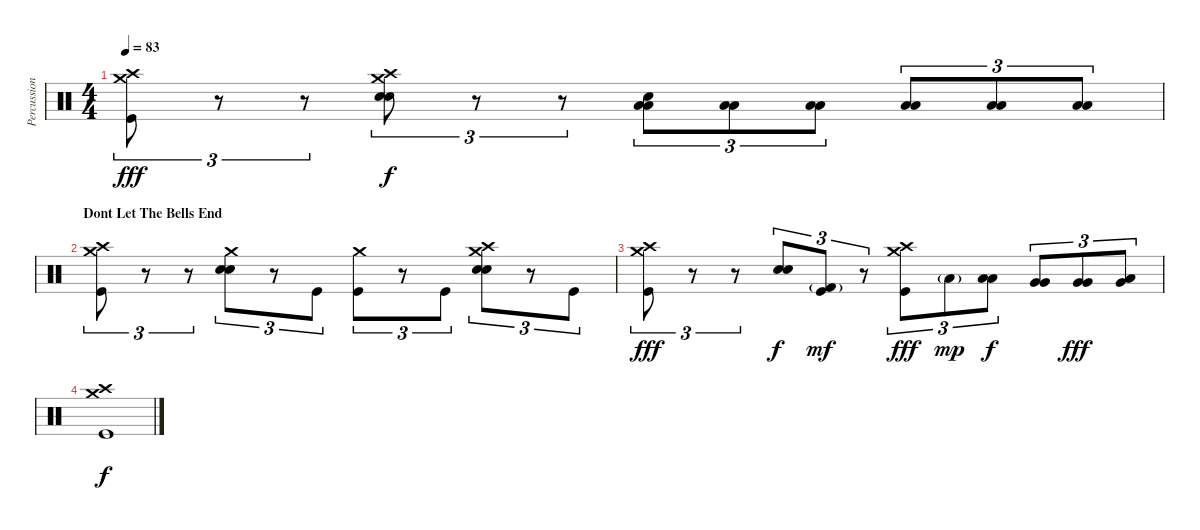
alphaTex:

\track ("Percussion" "Percussion") {instrument percussion}
\staff {score}
\articulation defaults
\ts (4 4)
\tempo 83
\clef neutral
\ks c
("Crash high (hit)" "Crash medium (hit)" "Kick (hit)").8{tu (3 2) dy fff} r.8{tu (3 2)} r.8{tu (3 2)} ("Crash high (hit)" "Crash medium (hit)" "Snare (hit) 2" "Snare (hit) 2").8{tu (3 2) dy f} r.8{tu (3 2)} r.8{tu (3 2)} ("Snare (hit) 2" "Low Floor Tom (hit)" "Low Floor Tom (hit)").8{tu (3 2)} ("Low Floor Tom (hit)" "Low Floor Tom (hit)").8{tu (3 2)} ("Low Floor Tom (hit)" "Low Floor Tom (hit)").8{tu (3 2)} ("Low Floor Tom (hit)" "Low Floor Tom (hit)").8{tu (3 2)} ("Low Floor Tom (hit)" "Low Floor Tom (hit)").8{tu (3 2)} ("Low Floor Tom (hit)" "Low Floor Tom (hit)").8{tu (3 2)} |
\section ("" "Dont Let The Bells End")
("Crash high (hit)" "Crash medium (hit)" "Kick (hit)").8{tu (3 2)} r.8{tu (3 2)} r.8{tu (3 2)} ("Crash medium (hit)" "Snare (hit) 2" "Snare (hit) 2").8{tu (3 2)} r.8{tu (3 2)} "Kick (hit)".8{tu (3 2)} ("Crash medium (hit)" "Kick (hit)").8{tu (3 2)} r.8{tu (3 2)} "Kick (hit)".8{tu (3 2)} ("Crash high (hit)" "Crash medium (hit)" "Snare (hit) 2" "Snare (hit) 2").8{tu (3 2)} r.8{tu (3 2)} "Kick (hit)".8{tu (3 2)} |
("Crash high (hit)" "Crash medium (hit)" "Kick (hit)").8{tu (3 2) dy fff} r.8{tu (3 2)} r.8{tu (3 2)} ("Snare (hit) 2" "Snare (hit) 2").8{tu (3 2) dy f} ("Kick (hit)" "Kick (hit) 2"{g}).8{tu (3 2) dy mf} r.8{tu (3 2)} ("Crash high (hit)" "Crash medium (hit)" "Kick (hit)").8{tu (3 2) dy fff} "Low Floor Tom (hit)"{g}.8{tu (3 2) dy mp} ("Low Floor Tom (hit)" "Low Floor Tom (hit)").8{tu (3 2) dy f} ("Very Low Tom (hit)" "Very Low Tom (hit)").8{tu (3 2)} ("Very Low Tom (hit)" "Very Low Tom (hit)").8{tu (3 2) dy fff} ("Low Tom (hit)" "Very Low Tom (hit)").8{tu (3 2)} |
("Crash medium (hit)" "Crash high (hit)" "Kick (hit)").1{dy f}
